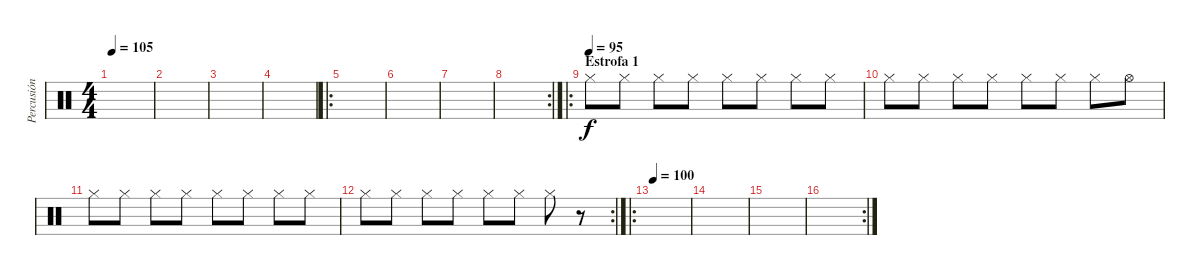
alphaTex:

\track ("Percusión" "Percusión") {instrument percussion}
\staff {score}
\articulation defaults
\ts (4 4)
\tempo 105
\clef neutral
\ks c
|
|
|
|
\ro
|
|
|
\rc 2
|
\ro
\section ("" "Estrofa 1")
\tempo (95)
"Hi-Hat (closed)".8 "Hi-Hat (closed)".8 "Hi-Hat (closed)".8 "Hi-Hat (closed)".8 "Hi-Hat (closed)".8 "Hi-Hat (closed)".8 "Hi-Hat (closed)".8 "Hi-Hat (closed)".8 |
"Hi-Hat (closed)".8 "Hi-Hat (closed)".8 "Hi-Hat (closed)".8 "Hi-Hat (closed)".8 "Hi-Hat (closed)".8 "Hi-Hat (closed)".8 "Hi-Hat (closed)".8 "Hi-Hat (open)".8 |
"Hi-Hat (closed)".8 "Hi-Hat (closed)".8 "Hi-Hat (closed)".8 "Hi-Hat (closed)".8 "Hi-Hat (closed)".8 "Hi-Hat (closed)".8 "Hi-Hat (closed)".8 "Hi-Hat (closed)".8 |
\rc 2 "Hi-Hat (closed)".8 "Hi-Hat (closed)".8 "Hi-Hat (closed)".8 "Hi-Hat (closed)".8 "Hi-Hat (closed)".8 "Hi-Hat (closed)".8 "Hi-Hat (closed)".8
r.8 |
\ro
\tempo 100
|
|
|
\rc 2
